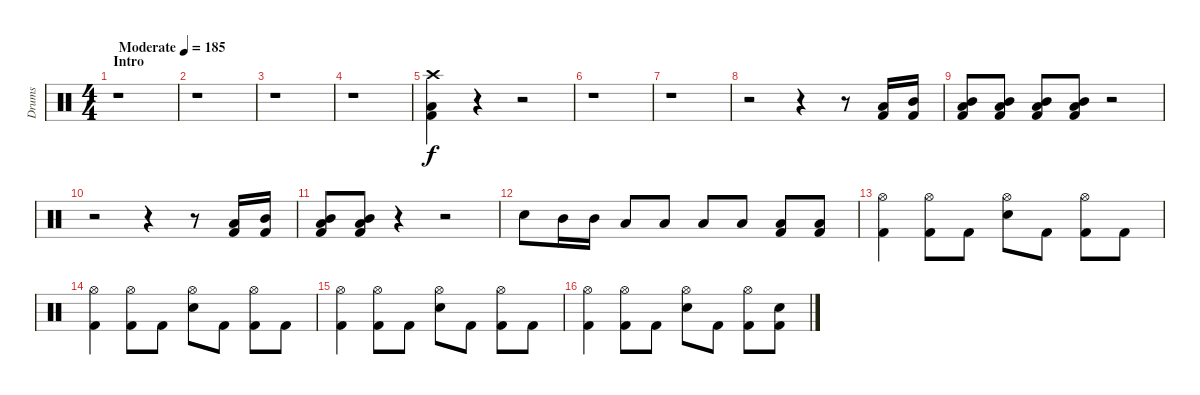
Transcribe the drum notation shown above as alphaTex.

\track ("Drums" "Drums") {instrument percussion}
\staff {score}
\articulation defaults
\ts (4 4)
\section ("" "Intro")
\tempo (185 "Moderate")
\clef neutral
\ks c
r.1{dy f} |
r.1 |
r.1 |
r.1 |
("Crash high (hit)" "Low Floor Tom (hit)" "Kick (hit) 2").4 r.4 r.2 |
r.1 |
r.1 |
r.2 r.4 r.8 ("Low Tom (hit)" "Kick (hit) 2").16 ("Mid Tom (hit)" "Kick (hit) 2").16 |
("Mid Tom (hit)" "Low Tom (hit)" "Kick (hit) 2").8 ("Mid Tom (hit)" "Low Tom (hit)" "Kick (hit) 2").8 ("Mid Tom (hit)" "Low Tom (hit)" "Kick (hit) 2").8 ("Mid Tom (hit)" "Low Tom (hit)" "Kick (hit) 2").8 r.2 |
r.2 r.4 r.8 ("Low Tom (hit)" "Kick (hit) 2").16 ("Mid Tom (hit)" "Kick (hit) 2").16 |
("Mid Tom (hit)" "Low Tom (hit)" "Kick (hit) 2").8 ("Mid Tom (hit)" "Low Tom (hit)" "Kick (hit) 2").8 r.4 r.2 |
"Snare (hit) 2".8 "Mid Tom (hit)".16 "Mid Tom (hit)".16 "Low Tom (hit)".8 "Low Tom (hit)".8 "Low Floor Tom (hit)".8 "Low Floor Tom (hit)".8 ("Low Floor Tom (hit)" "Kick (hit) 2").8 ("Low Floor Tom (hit)" "Kick (hit) 2").8 |
("Hi-Hat (open)" "Kick (hit) 2").4 ("Hi-Hat (open)" "Kick (hit) 2").8 "Kick (hit) 2".8 ("Hi-Hat (open)" "Snare (hit) 2").8 "Kick (hit) 2".8 ("Hi-Hat (open)" "Kick (hit) 2").8 "Kick (hit) 2".8 |
("Hi-Hat (open)" "Kick (hit) 2").4 ("Hi-Hat (open)" "Kick (hit) 2").8 "Kick (hit) 2".8 ("Hi-Hat (open)" "Snare (hit) 2").8 "Kick (hit) 2".8 ("Hi-Hat (open)" "Kick (hit) 2").8 "Kick (hit) 2".8 |
("Hi-Hat (open)" "Kick (hit) 2").4 ("Hi-Hat (open)" "Kick (hit) 2").8 "Kick (hit) 2".8 ("Hi-Hat (open)" "Snare (hit) 2").8 "Kick (hit) 2".8 ("Hi-Hat (open)" "Kick (hit) 2").8 "Kick (hit) 2".8 |
("Hi-Hat (open)" "Kick (hit) 2").4 ("Hi-Hat (open)" "Kick (hit) 2").8 "Kick (hit) 2".8 ("Hi-Hat (open)" "Snare (hit) 2").8 "Kick (hit) 2".8 ("Hi-Hat (open)" "Kick (hit) 2").8 ("Snare (hit) 2" "Kick (hit) 2").8
